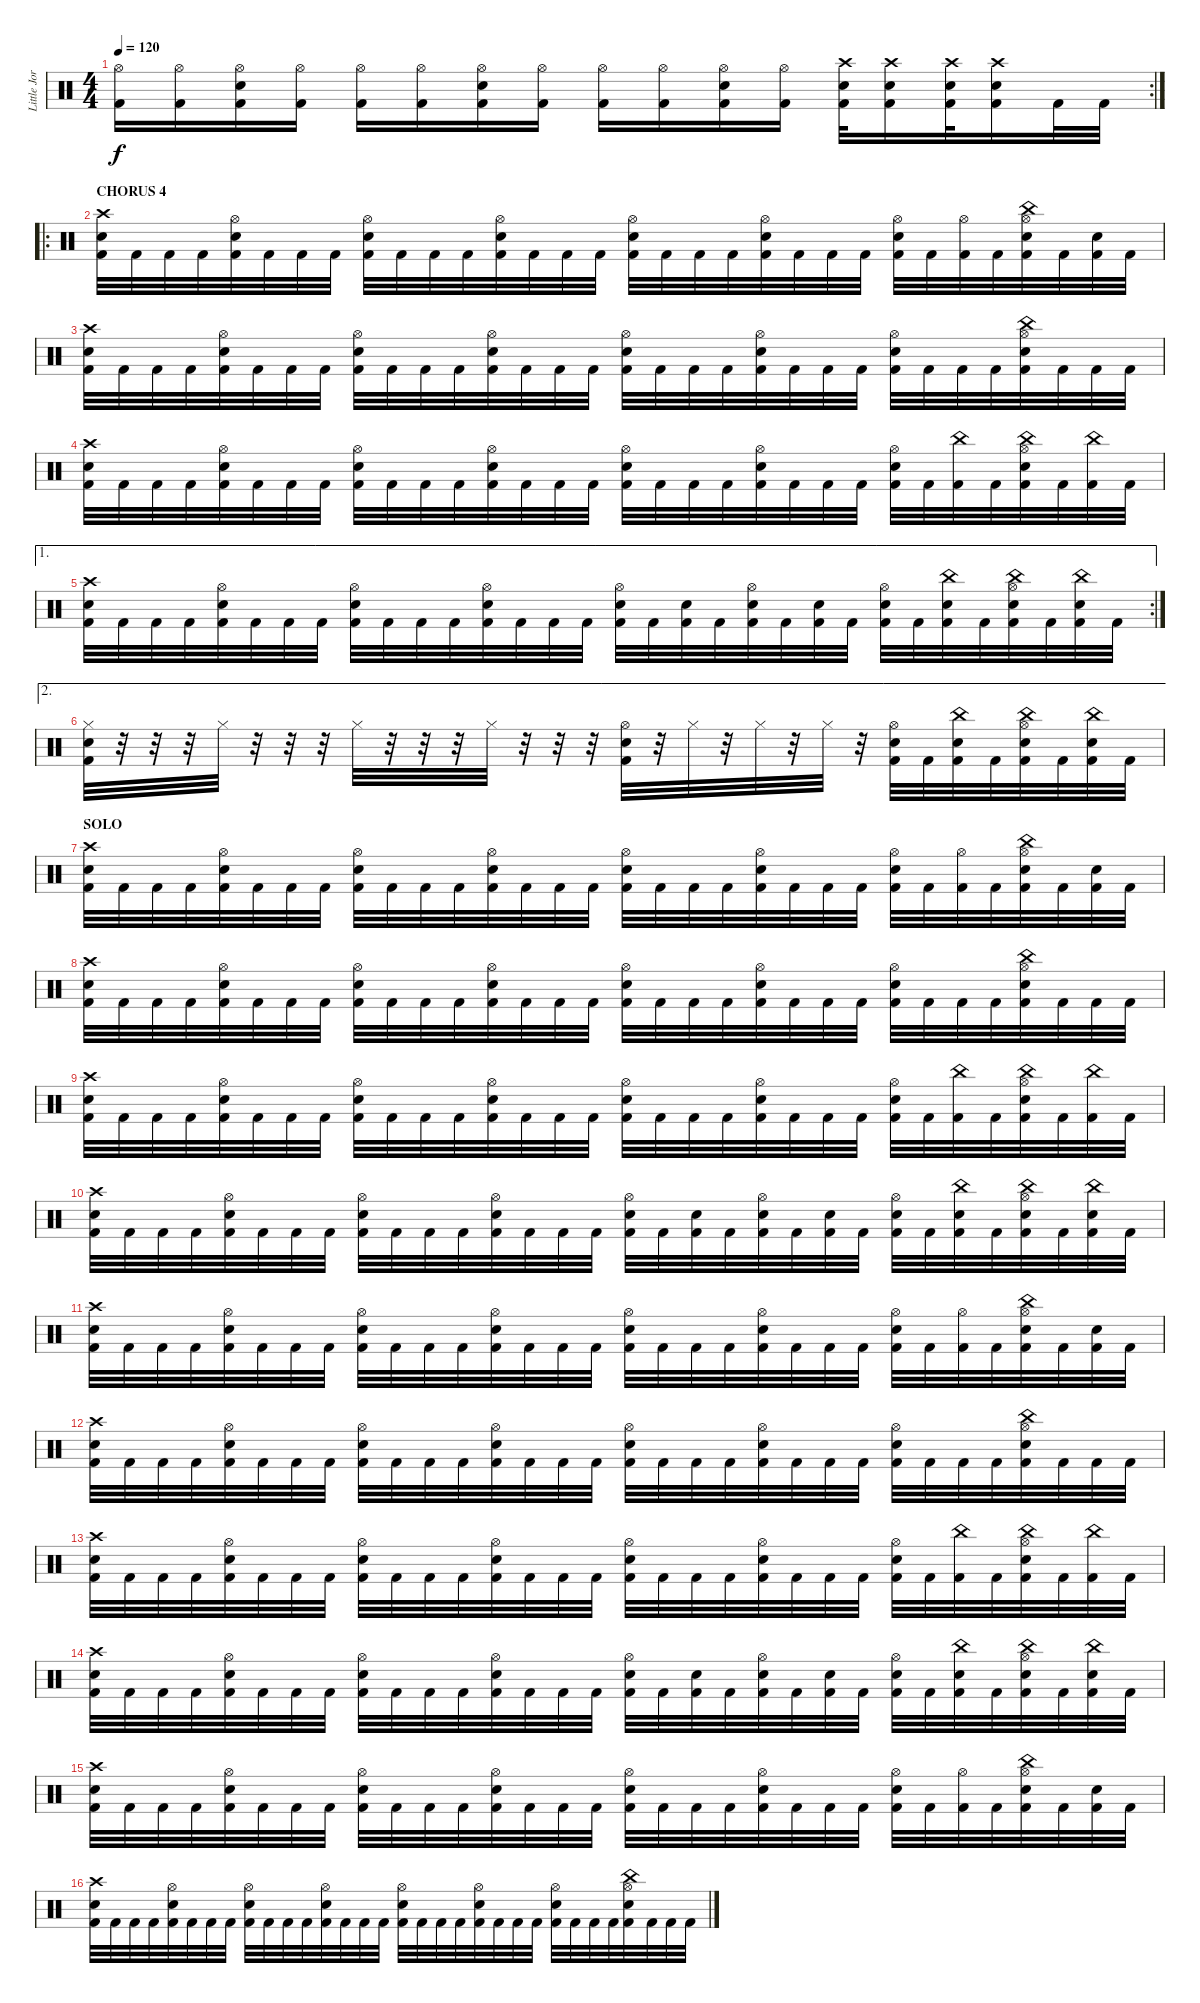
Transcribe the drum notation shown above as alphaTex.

\track ("Little Jordison" "Little Jor") {instrument percussion}
\staff {score}
\articulation defaults
\rc 2
\ts (4 4)
\tempo 120
\clef neutral
\ks c
("Hi-Hat (open)" "Kick (hit) 2").16{dy f} ("Hi-Hat (open)" "Kick (hit) 2").16 ("Hi-Hat (open)" "Electric Snare (hit)" "Kick (hit) 2").16 ("Hi-Hat (open)" "Kick (hit) 2").16 ("Hi-Hat (open)" "Kick (hit) 2").16 ("Hi-Hat (open)" "Kick (hit) 2").16 ("Hi-Hat (open)" "Electric Snare (hit)" "Kick (hit) 2").16 ("Hi-Hat (open)" "Kick (hit) 2").16 ("Hi-Hat (open)" "Kick (hit) 2").16 ("Hi-Hat (open)" "Kick (hit) 2").16 ("Hi-Hat (open)" "Electric Snare (hit)" "Kick (hit) 2").16 ("Hi-Hat (open)" "Kick (hit) 2").16 ("Crash high (hit)" "Electric Snare (hit)" "Kick (hit) 2").32 ("Crash high (hit)" "Electric Snare (hit)" "Kick (hit) 2").16 ("Crash high (hit)" "Electric Snare (hit)" "Kick (hit) 2").32 ("Crash high (hit)" "Electric Snare (hit)" "Kick (hit) 2").16 "Kick (hit) 2".32 "Kick (hit) 2".32 |
\ro
\section ("" "CHORUS 4")
("Crash high (hit)" "Electric Snare (hit)" "Kick (hit) 2").32 "Kick (hit) 2".32 "Kick (hit) 2".32 "Kick (hit) 2".32 ("Hi-Hat (open)" "Electric Snare (hit)" "Kick (hit) 2").32 "Kick (hit) 2".32 "Kick (hit) 2".32 "Kick (hit) 2".32 ("Hi-Hat (open)" "Electric Snare (hit)" "Kick (hit) 2").32 "Kick (hit) 2".32 "Kick (hit) 2".32 "Kick (hit) 2".32 ("Hi-Hat (open)" "Electric Snare (hit)" "Kick (hit) 2").32 "Kick (hit) 2".32 "Kick (hit) 2".32 "Kick (hit) 2".32 ("Hi-Hat (open)" "Electric Snare (hit)" "Kick (hit) 2").32 "Kick (hit) 2".32 "Kick (hit) 2".32 "Kick (hit) 2".32 ("Hi-Hat (open)" "Electric Snare (hit)" "Kick (hit) 2").32 "Kick (hit) 2".32 "Kick (hit) 2".32 "Kick (hit) 2".32 ("Hi-Hat (open)" "Electric Snare (hit)" "Kick (hit) 2").32 "Kick (hit) 2".32 ("Hi-Hat (open)" "Kick (hit) 2").32 "Kick (hit) 2".32 ("China (hit)" "Hi-Hat (open)" "Electric Snare (hit)" "Kick (hit) 2").32 "Kick (hit) 2".32 ("Snare (hit)" "Kick (hit) 2").32 "Kick (hit) 2".32 |
("Crash high (hit)" "Electric Snare (hit)" "Kick (hit) 2").32 "Kick (hit) 2".32 "Kick (hit) 2".32 "Kick (hit) 2".32 ("Hi-Hat (open)" "Electric Snare (hit)" "Kick (hit) 2").32 "Kick (hit) 2".32 "Kick (hit) 2".32 "Kick (hit) 2".32 ("Hi-Hat (open)" "Electric Snare (hit)" "Kick (hit) 2").32 "Kick (hit) 2".32 "Kick (hit) 2".32 "Kick (hit) 2".32 ("Hi-Hat (open)" "Electric Snare (hit)" "Kick (hit) 2").32 "Kick (hit) 2".32 "Kick (hit) 2".32 "Kick (hit) 2".32 ("Hi-Hat (open)" "Electric Snare (hit)" "Kick (hit) 2").32 "Kick (hit) 2".32 "Kick (hit) 2".32 "Kick (hit) 2".32 ("Hi-Hat (open)" "Electric Snare (hit)" "Kick (hit) 2").32 "Kick (hit) 2".32 "Kick (hit) 2".32 "Kick (hit) 2".32 ("Hi-Hat (open)" "Electric Snare (hit)" "Kick (hit) 2").32 "Kick (hit) 2".32 "Kick (hit) 2".32 "Kick (hit) 2".32 ("China (hit)" "Hi-Hat (open)" "Electric Snare (hit)" "Kick (hit) 2").32 "Kick (hit) 2".32 "Kick (hit) 2".32 "Kick (hit) 2".32 |
("Crash high (hit)" "Electric Snare (hit)" "Kick (hit) 2").32 "Kick (hit) 2".32 "Kick (hit) 2".32 "Kick (hit) 2".32 ("Hi-Hat (open)" "Electric Snare (hit)" "Kick (hit) 2").32 "Kick (hit) 2".32 "Kick (hit) 2".32 "Kick (hit) 2".32 ("Hi-Hat (open)" "Electric Snare (hit)" "Kick (hit) 2").32 "Kick (hit) 2".32 "Kick (hit) 2".32 "Kick (hit) 2".32 ("Hi-Hat (open)" "Electric Snare (hit)" "Kick (hit) 2").32 "Kick (hit) 2".32 "Kick (hit) 2".32 "Kick (hit) 2".32 ("Hi-Hat (open)" "Electric Snare (hit)" "Kick (hit) 2").32 "Kick (hit) 2".32 "Kick (hit) 2".32 "Kick (hit) 2".32 ("Hi-Hat (open)" "Electric Snare (hit)" "Kick (hit) 2").32 "Kick (hit) 2".32 "Kick (hit) 2".32 "Kick (hit) 2".32 ("Hi-Hat (open)" "Electric Snare (hit)" "Kick (hit) 2").32 "Kick (hit) 2".32 ("China (hit)" "Kick (hit) 2").32 "Kick (hit) 2".32 ("China (hit)" "Hi-Hat (open)" "Electric Snare (hit)" "Kick (hit) 2").32 "Kick (hit) 2".32 ("China (hit)" "Kick (hit) 2").32 "Kick (hit) 2".32 |
\ae 1
\rc 2
("Crash high (hit)" "Electric Snare (hit)" "Kick (hit) 2").32 "Kick (hit) 2".32 "Kick (hit) 2".32 "Kick (hit) 2".32 ("Hi-Hat (open)" "Electric Snare (hit)" "Kick (hit) 2").32 "Kick (hit) 2".32 "Kick (hit) 2".32 "Kick (hit) 2".32 ("Hi-Hat (open)" "Electric Snare (hit)" "Kick (hit) 2").32 "Kick (hit) 2".32 "Kick (hit) 2".32 "Kick (hit) 2".32 ("Hi-Hat (open)" "Electric Snare (hit)" "Kick (hit) 2").32 "Kick (hit) 2".32 "Kick (hit) 2".32 "Kick (hit) 2".32 ("Hi-Hat (open)" "Electric Snare (hit)" "Kick (hit) 2").32 "Kick (hit) 2".32 ("Electric Snare (hit)" "Kick (hit) 2").32 "Kick (hit) 2".32 ("Hi-Hat (open)" "Electric Snare (hit)" "Kick (hit) 2").32 "Kick (hit) 2".32 ("Electric Snare (hit)" "Kick (hit) 2").32 "Kick (hit) 2".32 ("Hi-Hat (open)" "Electric Snare (hit)" "Kick (hit) 2").32 "Kick (hit) 2".32 ("China (hit)" "Electric Snare (hit)" "Kick (hit) 2").32 "Kick (hit) 2".32 ("China (hit)" "Hi-Hat (open)" "Electric Snare (hit)" "Kick (hit) 2").32 "Kick (hit) 2".32 ("China (hit)" "Electric Snare (hit)" "Kick (hit) 2").32 "Kick (hit) 2".32 |
\ae 2
("Hi-Hat (closed)" "Electric Snare (hit)" "Kick (hit) 2").32 r.32 r.32 r.32 "Hi-Hat (closed)".32 r.32 r.32 r.32 "Hi-Hat (closed)".32 r.32 r.32 r.32 "Hi-Hat (closed)".32 r.32 r.32 r.32 ("Hi-Hat (open)" "Electric Snare (hit)" "Kick (hit) 2").32 r.32 "Hi-Hat (closed)".32 r.32 "Hi-Hat (closed)".32 r.32 "Hi-Hat (closed)".32 r.32 ("Hi-Hat (open)" "Electric Snare (hit)" "Kick (hit) 2").32 "Kick (hit) 2".32 ("China (hit)" "Electric Snare (hit)" "Kick (hit) 2").32 "Kick (hit) 2".32 ("China (hit)" "Hi-Hat (open)" "Electric Snare (hit)" "Kick (hit) 2").32 "Kick (hit) 2".32 ("China (hit)" "Electric Snare (hit)" "Kick (hit) 2").32 "Kick (hit) 2".32 |
\section ("" "SOLO")
("Crash high (hit)" "Electric Snare (hit)" "Kick (hit) 2").32 "Kick (hit) 2".32 "Kick (hit) 2".32 "Kick (hit) 2".32 ("Hi-Hat (open)" "Electric Snare (hit)" "Kick (hit) 2").32 "Kick (hit) 2".32 "Kick (hit) 2".32 "Kick (hit) 2".32 ("Hi-Hat (open)" "Electric Snare (hit)" "Kick (hit) 2").32 "Kick (hit) 2".32 "Kick (hit) 2".32 "Kick (hit) 2".32 ("Hi-Hat (open)" "Electric Snare (hit)" "Kick (hit) 2").32 "Kick (hit) 2".32 "Kick (hit) 2".32 "Kick (hit) 2".32 ("Hi-Hat (open)" "Electric Snare (hit)" "Kick (hit) 2").32 "Kick (hit) 2".32 "Kick (hit) 2".32 "Kick (hit) 2".32 ("Hi-Hat (open)" "Electric Snare (hit)" "Kick (hit) 2").32 "Kick (hit) 2".32 "Kick (hit) 2".32 "Kick (hit) 2".32 ("Hi-Hat (open)" "Electric Snare (hit)" "Kick (hit) 2").32 "Kick (hit) 2".32 ("Hi-Hat (open)" "Kick (hit) 2").32 "Kick (hit) 2".32 ("China (hit)" "Hi-Hat (open)" "Electric Snare (hit)" "Kick (hit) 2").32 "Kick (hit) 2".32 ("Snare (hit)" "Kick (hit) 2").32 "Kick (hit) 2".32 |
("Crash high (hit)" "Electric Snare (hit)" "Kick (hit) 2").32 "Kick (hit) 2".32 "Kick (hit) 2".32 "Kick (hit) 2".32 ("Hi-Hat (open)" "Electric Snare (hit)" "Kick (hit) 2").32 "Kick (hit) 2".32 "Kick (hit) 2".32 "Kick (hit) 2".32 ("Hi-Hat (open)" "Electric Snare (hit)" "Kick (hit) 2").32 "Kick (hit) 2".32 "Kick (hit) 2".32 "Kick (hit) 2".32 ("Hi-Hat (open)" "Electric Snare (hit)" "Kick (hit) 2").32 "Kick (hit) 2".32 "Kick (hit) 2".32 "Kick (hit) 2".32 ("Hi-Hat (open)" "Electric Snare (hit)" "Kick (hit) 2").32 "Kick (hit) 2".32 "Kick (hit) 2".32 "Kick (hit) 2".32 ("Hi-Hat (open)" "Electric Snare (hit)" "Kick (hit) 2").32 "Kick (hit) 2".32 "Kick (hit) 2".32 "Kick (hit) 2".32 ("Hi-Hat (open)" "Electric Snare (hit)" "Kick (hit) 2").32 "Kick (hit) 2".32 "Kick (hit) 2".32 "Kick (hit) 2".32 ("China (hit)" "Hi-Hat (open)" "Electric Snare (hit)" "Kick (hit) 2").32 "Kick (hit) 2".32 "Kick (hit) 2".32 "Kick (hit) 2".32 |
("Crash high (hit)" "Electric Snare (hit)" "Kick (hit) 2").32 "Kick (hit) 2".32 "Kick (hit) 2".32 "Kick (hit) 2".32 ("Hi-Hat (open)" "Electric Snare (hit)" "Kick (hit) 2").32 "Kick (hit) 2".32 "Kick (hit) 2".32 "Kick (hit) 2".32 ("Hi-Hat (open)" "Electric Snare (hit)" "Kick (hit) 2").32 "Kick (hit) 2".32 "Kick (hit) 2".32 "Kick (hit) 2".32 ("Hi-Hat (open)" "Electric Snare (hit)" "Kick (hit) 2").32 "Kick (hit) 2".32 "Kick (hit) 2".32 "Kick (hit) 2".32 ("Hi-Hat (open)" "Electric Snare (hit)" "Kick (hit) 2").32 "Kick (hit) 2".32 "Kick (hit) 2".32 "Kick (hit) 2".32 ("Hi-Hat (open)" "Electric Snare (hit)" "Kick (hit) 2").32 "Kick (hit) 2".32 "Kick (hit) 2".32 "Kick (hit) 2".32 ("Hi-Hat (open)" "Electric Snare (hit)" "Kick (hit) 2").32 "Kick (hit) 2".32 ("China (hit)" "Kick (hit) 2").32 "Kick (hit) 2".32 ("China (hit)" "Hi-Hat (open)" "Electric Snare (hit)" "Kick (hit) 2").32 "Kick (hit) 2".32 ("China (hit)" "Kick (hit) 2").32 "Kick (hit) 2".32 |
("Crash high (hit)" "Electric Snare (hit)" "Kick (hit) 2").32 "Kick (hit) 2".32 "Kick (hit) 2".32 "Kick (hit) 2".32 ("Hi-Hat (open)" "Electric Snare (hit)" "Kick (hit) 2").32 "Kick (hit) 2".32 "Kick (hit) 2".32 "Kick (hit) 2".32 ("Hi-Hat (open)" "Electric Snare (hit)" "Kick (hit) 2").32 "Kick (hit) 2".32 "Kick (hit) 2".32 "Kick (hit) 2".32 ("Hi-Hat (open)" "Electric Snare (hit)" "Kick (hit) 2").32 "Kick (hit) 2".32 "Kick (hit) 2".32 "Kick (hit) 2".32 ("Hi-Hat (open)" "Electric Snare (hit)" "Kick (hit) 2").32 "Kick (hit) 2".32 ("Electric Snare (hit)" "Kick (hit) 2").32 "Kick (hit) 2".32 ("Hi-Hat (open)" "Electric Snare (hit)" "Kick (hit) 2").32 "Kick (hit) 2".32 ("Electric Snare (hit)" "Kick (hit) 2").32 "Kick (hit) 2".32 ("Hi-Hat (open)" "Electric Snare (hit)" "Kick (hit) 2").32 "Kick (hit) 2".32 ("China (hit)" "Electric Snare (hit)" "Kick (hit) 2").32 "Kick (hit) 2".32 ("China (hit)" "Hi-Hat (open)" "Electric Snare (hit)" "Kick (hit) 2").32 "Kick (hit) 2".32 ("China (hit)" "Electric Snare (hit)" "Kick (hit) 2").32 "Kick (hit) 2".32 |
("Crash high (hit)" "Electric Snare (hit)" "Kick (hit) 2").32 "Kick (hit) 2".32 "Kick (hit) 2".32 "Kick (hit) 2".32 ("Hi-Hat (open)" "Electric Snare (hit)" "Kick (hit) 2").32 "Kick (hit) 2".32 "Kick (hit) 2".32 "Kick (hit) 2".32 ("Hi-Hat (open)" "Electric Snare (hit)" "Kick (hit) 2").32 "Kick (hit) 2".32 "Kick (hit) 2".32 "Kick (hit) 2".32 ("Hi-Hat (open)" "Electric Snare (hit)" "Kick (hit) 2").32 "Kick (hit) 2".32 "Kick (hit) 2".32 "Kick (hit) 2".32 ("Hi-Hat (open)" "Electric Snare (hit)" "Kick (hit) 2").32 "Kick (hit) 2".32 "Kick (hit) 2".32 "Kick (hit) 2".32 ("Hi-Hat (open)" "Electric Snare (hit)" "Kick (hit) 2").32 "Kick (hit) 2".32 "Kick (hit) 2".32 "Kick (hit) 2".32 ("Hi-Hat (open)" "Electric Snare (hit)" "Kick (hit) 2").32 "Kick (hit) 2".32 ("Hi-Hat (open)" "Kick (hit) 2").32 "Kick (hit) 2".32 ("China (hit)" "Hi-Hat (open)" "Electric Snare (hit)" "Kick (hit) 2").32 "Kick (hit) 2".32 ("Snare (hit)" "Kick (hit) 2").32 "Kick (hit) 2".32 |
("Crash high (hit)" "Electric Snare (hit)" "Kick (hit) 2").32 "Kick (hit) 2".32 "Kick (hit) 2".32 "Kick (hit) 2".32 ("Hi-Hat (open)" "Electric Snare (hit)" "Kick (hit) 2").32 "Kick (hit) 2".32 "Kick (hit) 2".32 "Kick (hit) 2".32 ("Hi-Hat (open)" "Electric Snare (hit)" "Kick (hit) 2").32 "Kick (hit) 2".32 "Kick (hit) 2".32 "Kick (hit) 2".32 ("Hi-Hat (open)" "Electric Snare (hit)" "Kick (hit) 2").32 "Kick (hit) 2".32 "Kick (hit) 2".32 "Kick (hit) 2".32 ("Hi-Hat (open)" "Electric Snare (hit)" "Kick (hit) 2").32 "Kick (hit) 2".32 "Kick (hit) 2".32 "Kick (hit) 2".32 ("Hi-Hat (open)" "Electric Snare (hit)" "Kick (hit) 2").32 "Kick (hit) 2".32 "Kick (hit) 2".32 "Kick (hit) 2".32 ("Hi-Hat (open)" "Electric Snare (hit)" "Kick (hit) 2").32 "Kick (hit) 2".32 "Kick (hit) 2".32 "Kick (hit) 2".32 ("China (hit)" "Hi-Hat (open)" "Electric Snare (hit)" "Kick (hit) 2").32 "Kick (hit) 2".32 "Kick (hit) 2".32 "Kick (hit) 2".32 |
("Crash high (hit)" "Electric Snare (hit)" "Kick (hit) 2").32 "Kick (hit) 2".32 "Kick (hit) 2".32 "Kick (hit) 2".32 ("Hi-Hat (open)" "Electric Snare (hit)" "Kick (hit) 2").32 "Kick (hit) 2".32 "Kick (hit) 2".32 "Kick (hit) 2".32 ("Hi-Hat (open)" "Electric Snare (hit)" "Kick (hit) 2").32 "Kick (hit) 2".32 "Kick (hit) 2".32 "Kick (hit) 2".32 ("Hi-Hat (open)" "Electric Snare (hit)" "Kick (hit) 2").32 "Kick (hit) 2".32 "Kick (hit) 2".32 "Kick (hit) 2".32 ("Hi-Hat (open)" "Electric Snare (hit)" "Kick (hit) 2").32 "Kick (hit) 2".32 "Kick (hit) 2".32 "Kick (hit) 2".32 ("Hi-Hat (open)" "Electric Snare (hit)" "Kick (hit) 2").32 "Kick (hit) 2".32 "Kick (hit) 2".32 "Kick (hit) 2".32 ("Hi-Hat (open)" "Electric Snare (hit)" "Kick (hit) 2").32 "Kick (hit) 2".32 ("China (hit)" "Kick (hit) 2").32 "Kick (hit) 2".32 ("China (hit)" "Hi-Hat (open)" "Electric Snare (hit)" "Kick (hit) 2").32 "Kick (hit) 2".32 ("China (hit)" "Kick (hit) 2").32 "Kick (hit) 2".32 |
("Crash high (hit)" "Electric Snare (hit)" "Kick (hit) 2").32 "Kick (hit) 2".32 "Kick (hit) 2".32 "Kick (hit) 2".32 ("Hi-Hat (open)" "Electric Snare (hit)" "Kick (hit) 2").32 "Kick (hit) 2".32 "Kick (hit) 2".32 "Kick (hit) 2".32 ("Hi-Hat (open)" "Electric Snare (hit)" "Kick (hit) 2").32 "Kick (hit) 2".32 "Kick (hit) 2".32 "Kick (hit) 2".32 ("Hi-Hat (open)" "Electric Snare (hit)" "Kick (hit) 2").32 "Kick (hit) 2".32 "Kick (hit) 2".32 "Kick (hit) 2".32 ("Hi-Hat (open)" "Electric Snare (hit)" "Kick (hit) 2").32 "Kick (hit) 2".32 ("Electric Snare (hit)" "Kick (hit) 2").32 "Kick (hit) 2".32 ("Hi-Hat (open)" "Electric Snare (hit)" "Kick (hit) 2").32 "Kick (hit) 2".32 ("Electric Snare (hit)" "Kick (hit) 2").32 "Kick (hit) 2".32 ("Hi-Hat (open)" "Electric Snare (hit)" "Kick (hit) 2").32 "Kick (hit) 2".32 ("China (hit)" "Electric Snare (hit)" "Kick (hit) 2").32 "Kick (hit) 2".32 ("China (hit)" "Hi-Hat (open)" "Electric Snare (hit)" "Kick (hit) 2").32 "Kick (hit) 2".32 ("China (hit)" "Electric Snare (hit)" "Kick (hit) 2").32 "Kick (hit) 2".32 |
("Crash high (hit)" "Electric Snare (hit)" "Kick (hit) 2").32 "Kick (hit) 2".32 "Kick (hit) 2".32 "Kick (hit) 2".32 ("Hi-Hat (open)" "Electric Snare (hit)" "Kick (hit) 2").32 "Kick (hit) 2".32 "Kick (hit) 2".32 "Kick (hit) 2".32 ("Hi-Hat (open)" "Electric Snare (hit)" "Kick (hit) 2").32 "Kick (hit) 2".32 "Kick (hit) 2".32 "Kick (hit) 2".32 ("Hi-Hat (open)" "Electric Snare (hit)" "Kick (hit) 2").32 "Kick (hit) 2".32 "Kick (hit) 2".32 "Kick (hit) 2".32 ("Hi-Hat (open)" "Electric Snare (hit)" "Kick (hit) 2").32 "Kick (hit) 2".32 "Kick (hit) 2".32 "Kick (hit) 2".32 ("Hi-Hat (open)" "Electric Snare (hit)" "Kick (hit) 2").32 "Kick (hit) 2".32 "Kick (hit) 2".32 "Kick (hit) 2".32 ("Hi-Hat (open)" "Electric Snare (hit)" "Kick (hit) 2").32 "Kick (hit) 2".32 ("Hi-Hat (open)" "Kick (hit) 2").32 "Kick (hit) 2".32 ("China (hit)" "Hi-Hat (open)" "Electric Snare (hit)" "Kick (hit) 2").32 "Kick (hit) 2".32 ("Snare (hit)" "Kick (hit) 2").32 "Kick (hit) 2".32 |
("Crash high (hit)" "Electric Snare (hit)" "Kick (hit) 2").32 "Kick (hit) 2".32 "Kick (hit) 2".32 "Kick (hit) 2".32 ("Hi-Hat (open)" "Electric Snare (hit)" "Kick (hit) 2").32 "Kick (hit) 2".32 "Kick (hit) 2".32 "Kick (hit) 2".32 ("Hi-Hat (open)" "Electric Snare (hit)" "Kick (hit) 2").32 "Kick (hit) 2".32 "Kick (hit) 2".32 "Kick (hit) 2".32 ("Hi-Hat (open)" "Electric Snare (hit)" "Kick (hit) 2").32 "Kick (hit) 2".32 "Kick (hit) 2".32 "Kick (hit) 2".32 ("Hi-Hat (open)" "Electric Snare (hit)" "Kick (hit) 2").32 "Kick (hit) 2".32 "Kick (hit) 2".32 "Kick (hit) 2".32 ("Hi-Hat (open)" "Electric Snare (hit)" "Kick (hit) 2").32 "Kick (hit) 2".32 "Kick (hit) 2".32 "Kick (hit) 2".32 ("Hi-Hat (open)" "Electric Snare (hit)" "Kick (hit) 2").32 "Kick (hit) 2".32 "Kick (hit) 2".32 "Kick (hit) 2".32 ("China (hit)" "Hi-Hat (open)" "Electric Snare (hit)" "Kick (hit) 2").32 "Kick (hit) 2".32 "Kick (hit) 2".32 "Kick (hit) 2".32
